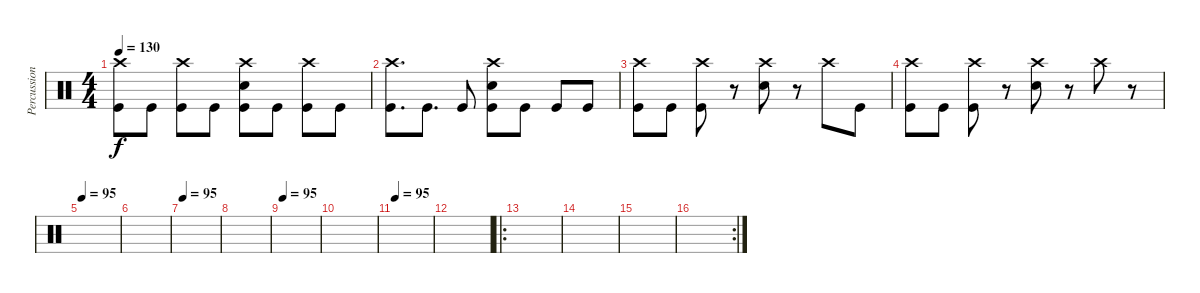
\track ("Percussion" "Percussion") {instrument percussion}
\staff {score}
\articulation defaults
\ts (4 4)
\tempo 130
\clef neutral
\ks c
("Crash high (hit)" "Kick (hit)").8{dy f} "Kick (hit)".8 ("Crash high (hit)" "Kick (hit)").8 "Kick (hit)".8 ("Crash high (hit)" "Electric Snare (hit)" "Kick (hit)").8 "Kick (hit)".8 ("Crash high (hit)" "Kick (hit)").8 "Kick (hit)".8 |
("Crash high (hit)" "Kick (hit)").8{d} "Kick (hit)".8{d} "Kick (hit)".8 ("Crash high (hit)" "Electric Snare (hit)" "Kick (hit)").8 "Kick (hit)".8 "Kick (hit)".8 "Kick (hit)".8 |
("Crash high (hit)" "Kick (hit)").8 "Kick (hit)".8 ("Crash high (hit)" "Kick (hit)").8 r.8 ("Crash high (hit)" "Electric Snare (hit)").8 r.8 "Crash high (hit)".8 "Kick (hit)".8 |
("Crash high (hit)" "Kick (hit)").8 "Kick (hit)".8 ("Crash high (hit)" "Kick (hit)").8 r.8 ("Crash high (hit)" "Electric Snare (hit)").8 r.8 "Crash high (hit)".8 r.8 |
\tempo 95
|
|
\tempo 95
|
|
\tempo 95
|
|
\tempo 95
|
|
\ro
|
|
|
\rc 2
